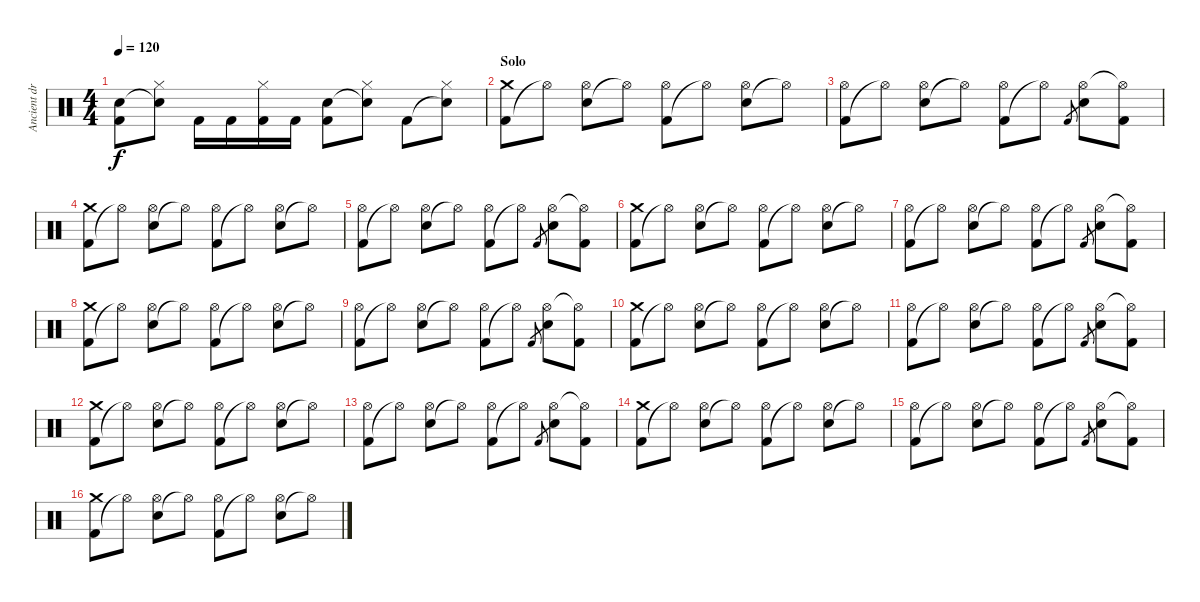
\track ("Ancient drum type things :S" "Ancient dr") {instrument percussion}
\staff {score}
\articulation defaults
\ts (4 4)
\tempo 120
\clef neutral
\ks c
("Snare (hit) 2" "Kick (hit) 2").8{dy f} ("Snare (hit)"{t} "Hi-Hat (closed)").8 "Kick (hit) 2".16 "Kick (hit) 2".16 ("Kick (hit) 2" "Hi-Hat (closed)").16 "Kick (hit) 2".16 ("Snare (hit) 2" "Kick (hit) 2").8 ("Snare (hit)"{t} "Hi-Hat (closed)").8 "Kick (hit) 2".8 ("Snare (hit)"{t} "Hi-Hat (closed)").8 |
\section ("" "Solo")
("Kick (hit) 2" "Crash medium (hit)").8 "Hi-Hat (open)"{t}.8 ("Electric Snare (hit)" "Hi-Hat (open)").8 "Hi-Hat (open)"{t}.8 ("Kick (hit) 2" "Hi-Hat (open)").8 "Hi-Hat (open)"{t}.8 ("Electric Snare (hit)" "Hi-Hat (open)").8 "Hi-Hat (open)"{t}.8 |
("Kick (hit) 2" "Hi-Hat (open)").8 "Hi-Hat (open)"{t}.8 ("Electric Snare (hit)" "Hi-Hat (open)").8 "Hi-Hat (open)"{t}.8 ("Kick (hit) 2" "Hi-Hat (open)").8 "Hi-Hat (open)"{t}.8 "Kick (hit) 2".8{gr} ("Electric Snare (hit)" "Hi-Hat (open)").8 ("Kick (hit) 2" "Hi-Hat (open)"{t}).8 |
("Kick (hit) 2" "Crash medium (hit)").8 "Hi-Hat (open)"{t}.8 ("Electric Snare (hit)" "Hi-Hat (open)").8 "Hi-Hat (open)"{t}.8 ("Kick (hit) 2" "Hi-Hat (open)").8 "Hi-Hat (open)"{t}.8 ("Electric Snare (hit)" "Hi-Hat (open)").8 "Hi-Hat (open)"{t}.8 |
("Kick (hit) 2" "Hi-Hat (open)").8 "Hi-Hat (open)"{t}.8 ("Electric Snare (hit)" "Hi-Hat (open)").8 "Hi-Hat (open)"{t}.8 ("Kick (hit) 2" "Hi-Hat (open)").8 "Hi-Hat (open)"{t}.8 "Kick (hit) 2".8{gr} ("Electric Snare (hit)" "Hi-Hat (open)").8 ("Kick (hit) 2" "Hi-Hat (open)"{t}).8 |
("Kick (hit) 2" "Crash medium (hit)").8 "Hi-Hat (open)"{t}.8 ("Electric Snare (hit)" "Hi-Hat (open)").8 "Hi-Hat (open)"{t}.8 ("Kick (hit) 2" "Hi-Hat (open)").8 "Hi-Hat (open)"{t}.8 ("Electric Snare (hit)" "Hi-Hat (open)").8 "Hi-Hat (open)"{t}.8 |
("Kick (hit) 2" "Hi-Hat (open)").8 "Hi-Hat (open)"{t}.8 ("Electric Snare (hit)" "Hi-Hat (open)").8 "Hi-Hat (open)"{t}.8 ("Kick (hit) 2" "Hi-Hat (open)").8 "Hi-Hat (open)"{t}.8 "Kick (hit) 2".8{gr} ("Electric Snare (hit)" "Hi-Hat (open)").8 ("Kick (hit) 2" "Hi-Hat (open)"{t}).8 |
("Kick (hit) 2" "Crash medium (hit)").8 "Hi-Hat (open)"{t}.8 ("Electric Snare (hit)" "Hi-Hat (open)").8 "Hi-Hat (open)"{t}.8 ("Kick (hit) 2" "Hi-Hat (open)").8 "Hi-Hat (open)"{t}.8 ("Electric Snare (hit)" "Hi-Hat (open)").8 "Hi-Hat (open)"{t}.8 |
("Kick (hit) 2" "Hi-Hat (open)").8 "Hi-Hat (open)"{t}.8 ("Electric Snare (hit)" "Hi-Hat (open)").8 "Hi-Hat (open)"{t}.8 ("Kick (hit) 2" "Hi-Hat (open)").8 "Hi-Hat (open)"{t}.8 "Kick (hit) 2".8{gr} ("Electric Snare (hit)" "Hi-Hat (open)").8 ("Kick (hit) 2" "Hi-Hat (open)"{t}).8 |
("Kick (hit) 2" "Crash medium (hit)").8 "Hi-Hat (open)"{t}.8 ("Electric Snare (hit)" "Hi-Hat (open)").8 "Hi-Hat (open)"{t}.8 ("Kick (hit) 2" "Hi-Hat (open)").8 "Hi-Hat (open)"{t}.8 ("Electric Snare (hit)" "Hi-Hat (open)").8 "Hi-Hat (open)"{t}.8 |
("Kick (hit) 2" "Hi-Hat (open)").8 "Hi-Hat (open)"{t}.8 ("Electric Snare (hit)" "Hi-Hat (open)").8 "Hi-Hat (open)"{t}.8 ("Kick (hit) 2" "Hi-Hat (open)").8 "Hi-Hat (open)"{t}.8 "Kick (hit) 2".8{gr} ("Electric Snare (hit)" "Hi-Hat (open)").8 ("Kick (hit) 2" "Hi-Hat (open)"{t}).8 |
("Kick (hit) 2" "Crash medium (hit)").8 "Hi-Hat (open)"{t}.8 ("Electric Snare (hit)" "Hi-Hat (open)").8 "Hi-Hat (open)"{t}.8 ("Kick (hit) 2" "Hi-Hat (open)").8 "Hi-Hat (open)"{t}.8 ("Electric Snare (hit)" "Hi-Hat (open)").8 "Hi-Hat (open)"{t}.8 |
("Kick (hit) 2" "Hi-Hat (open)").8 "Hi-Hat (open)"{t}.8 ("Electric Snare (hit)" "Hi-Hat (open)").8 "Hi-Hat (open)"{t}.8 ("Kick (hit) 2" "Hi-Hat (open)").8 "Hi-Hat (open)"{t}.8 "Kick (hit) 2".8{gr} ("Electric Snare (hit)" "Hi-Hat (open)").8 ("Kick (hit) 2" "Hi-Hat (open)"{t}).8 |
("Kick (hit) 2" "Crash medium (hit)").8 "Hi-Hat (open)"{t}.8 ("Electric Snare (hit)" "Hi-Hat (open)").8 "Hi-Hat (open)"{t}.8 ("Kick (hit) 2" "Hi-Hat (open)").8 "Hi-Hat (open)"{t}.8 ("Electric Snare (hit)" "Hi-Hat (open)").8 "Hi-Hat (open)"{t}.8 |
("Kick (hit) 2" "Hi-Hat (open)").8 "Hi-Hat (open)"{t}.8 ("Electric Snare (hit)" "Hi-Hat (open)").8 "Hi-Hat (open)"{t}.8 ("Kick (hit) 2" "Hi-Hat (open)").8 "Hi-Hat (open)"{t}.8 "Kick (hit) 2".8{gr} ("Electric Snare (hit)" "Hi-Hat (open)").8 ("Kick (hit) 2" "Hi-Hat (open)"{t}).8 |
("Kick (hit) 2" "Crash medium (hit)").8 "Hi-Hat (open)"{t}.8 ("Electric Snare (hit)" "Hi-Hat (open)").8 "Hi-Hat (open)"{t}.8 ("Kick (hit) 2" "Hi-Hat (open)").8 "Hi-Hat (open)"{t}.8 ("Electric Snare (hit)" "Hi-Hat (open)").8 "Hi-Hat (open)"{t}.8
